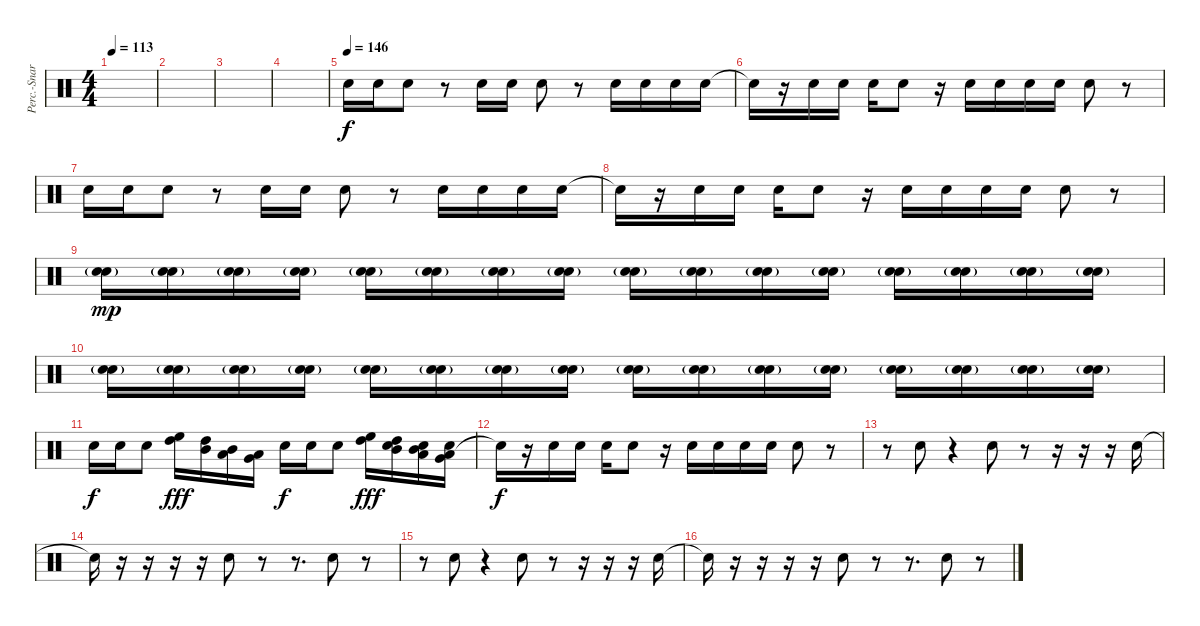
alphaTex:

\track ("Perc.-Snare" "Perc.-Snar") {instrument percussion}
\staff {score}
\articulation defaults
\ts (4 4)
\tempo 113
\clef neutral
\ks c
|
|
|
|
\tempo (146)
"Snare (hit) 2".16 "Snare (hit) 2".16 "Snare (hit) 2".8 r.8 "Snare (hit) 2".16 "Snare (hit) 2".16 "Snare (hit) 2".8 r.8 "Snare (hit) 2".16 "Snare (hit) 2".16 "Snare (hit) 2".16 "Snare (hit) 2".16 |
"Snare (hit)"{t}.16 r.16 "Snare (hit) 2".16 "Snare (hit) 2".16 "Snare (hit) 2".16 "Snare (hit) 2".8 r.16 "Snare (hit) 2".16 "Snare (hit) 2".16 "Snare (hit) 2".16 "Snare (hit) 2".16 "Snare (hit) 2".8 r.8 |
"Snare (hit) 2".16 "Snare (hit) 2".16 "Snare (hit) 2".8 r.8 "Snare (hit) 2".16 "Snare (hit) 2".16 "Snare (hit) 2".8 r.8 "Snare (hit) 2".16 "Snare (hit) 2".16 "Snare (hit) 2".16 "Snare (hit) 2".16 |
"Snare (hit)"{t}.16 r.16 "Snare (hit) 2".16 "Snare (hit) 2".16 "Snare (hit) 2".16 "Snare (hit) 2".8 r.16 "Snare (hit) 2".16 "Snare (hit) 2".16 "Snare (hit) 2".16 "Snare (hit) 2".16 "Snare (hit) 2".8 r.8 |
("Snare (hit) 2"{g} "Snare (hit) 2").16{dy mp} ("Snare (hit) 2"{g} "Snare (hit) 2").16 ("Snare (hit) 2"{g} "Snare (hit) 2").16 ("Snare (hit) 2"{g} "Snare (hit) 2").16 ("Snare (hit) 2"{g} "Snare (hit) 2").16 ("Snare (hit) 2"{g} "Snare (hit) 2").16 ("Snare (hit) 2"{g} "Snare (hit) 2").16 ("Snare (hit) 2"{g} "Snare (hit) 2").16 ("Snare (hit) 2"{g} "Snare (hit) 2").16 ("Snare (hit) 2"{g} "Snare (hit) 2").16 ("Snare (hit) 2"{g} "Snare (hit) 2").16 ("Snare (hit) 2"{g} "Snare (hit) 2").16 ("Snare (hit) 2"{g} "Snare (hit) 2").16 ("Snare (hit) 2"{g} "Snare (hit) 2").16 ("Snare (hit) 2"{g} "Snare (hit) 2").16 ("Snare (hit) 2"{g} "Snare (hit) 2").16 |
("Snare (hit) 2"{g} "Snare (hit) 2").16 ("Snare (hit) 2"{g} "Snare (hit) 2").16 ("Snare (hit) 2"{g} "Snare (hit) 2").16 ("Snare (hit) 2"{g} "Snare (hit) 2").16 ("Snare (hit) 2"{g} "Snare (hit) 2").16 ("Snare (hit) 2"{g} "Snare (hit) 2").16 ("Snare (hit) 2"{g} "Snare (hit) 2").16 ("Snare (hit) 2"{g} "Snare (hit) 2").16 ("Snare (hit) 2"{g} "Snare (hit) 2").16 ("Snare (hit) 2"{g} "Snare (hit) 2").16 ("Snare (hit) 2"{g} "Snare (hit) 2").16 ("Snare (hit) 2"{g} "Snare (hit) 2").16 ("Snare (hit) 2"{g} "Snare (hit) 2").16 ("Snare (hit) 2"{g} "Snare (hit) 2").16 ("Snare (hit) 2"{g} "Snare (hit) 2").16 ("Snare (hit) 2"{g} "Snare (hit) 2").16 |
"Snare (hit) 2".16{dy f} "Snare (hit) 2".16 "Snare (hit) 2".8 ("High Floor Tom (hit)" "High Tom (hit)").16{dy fff} ("High Tom (hit)" "Mid Tom (hit)").16 ("Mid Tom (hit)" "Low Tom (hit)").16 ("Low Tom (hit)" "Very Low Tom (hit)").16 "Snare (hit) 2".16{dy f} "Snare (hit) 2".16 "Snare (hit) 2".8 ("High Floor Tom (hit)" "High Tom (hit)").16{dy fff} ("High Tom (hit)" "Snare (hit) 2" "Mid Tom (hit)").16 ("Mid Tom (hit)" "Snare (hit) 2" "Low Tom (hit)").16 ("Low Tom (hit)" "Snare (hit) 2" "Very Low Tom (hit)").16 |
"Snare (hit)"{t}.16{dy f} r.16 "Snare (hit) 2".16 "Snare (hit) 2".16 "Snare (hit) 2".16 "Snare (hit) 2".8 r.16 "Snare (hit) 2".16 "Snare (hit) 2".16 "Snare (hit) 2".16 "Snare (hit) 2".16 "Snare (hit) 2".8 r.8 |
\section ("" "")
r.8 "Snare (hit) 2".8 r.4 "Snare (hit) 2".8 r.8 r.16 r.16 r.16 "Snare (hit) 2".16 |
"Snare (hit)"{t}.16 r.16 r.16 r.16 r.16 "Snare (hit) 2".8 r.8 r.8{d} "Snare (hit) 2".8 r.8 |
r.8 "Snare (hit) 2".8 r.4 "Snare (hit) 2".8 r.8 r.16 r.16 r.16 "Snare (hit) 2".16 |
"Snare (hit)"{t}.16 r.16 r.16 r.16 r.16 "Snare (hit) 2".8 r.8 r.8{d} "Snare (hit) 2".8 r.8
